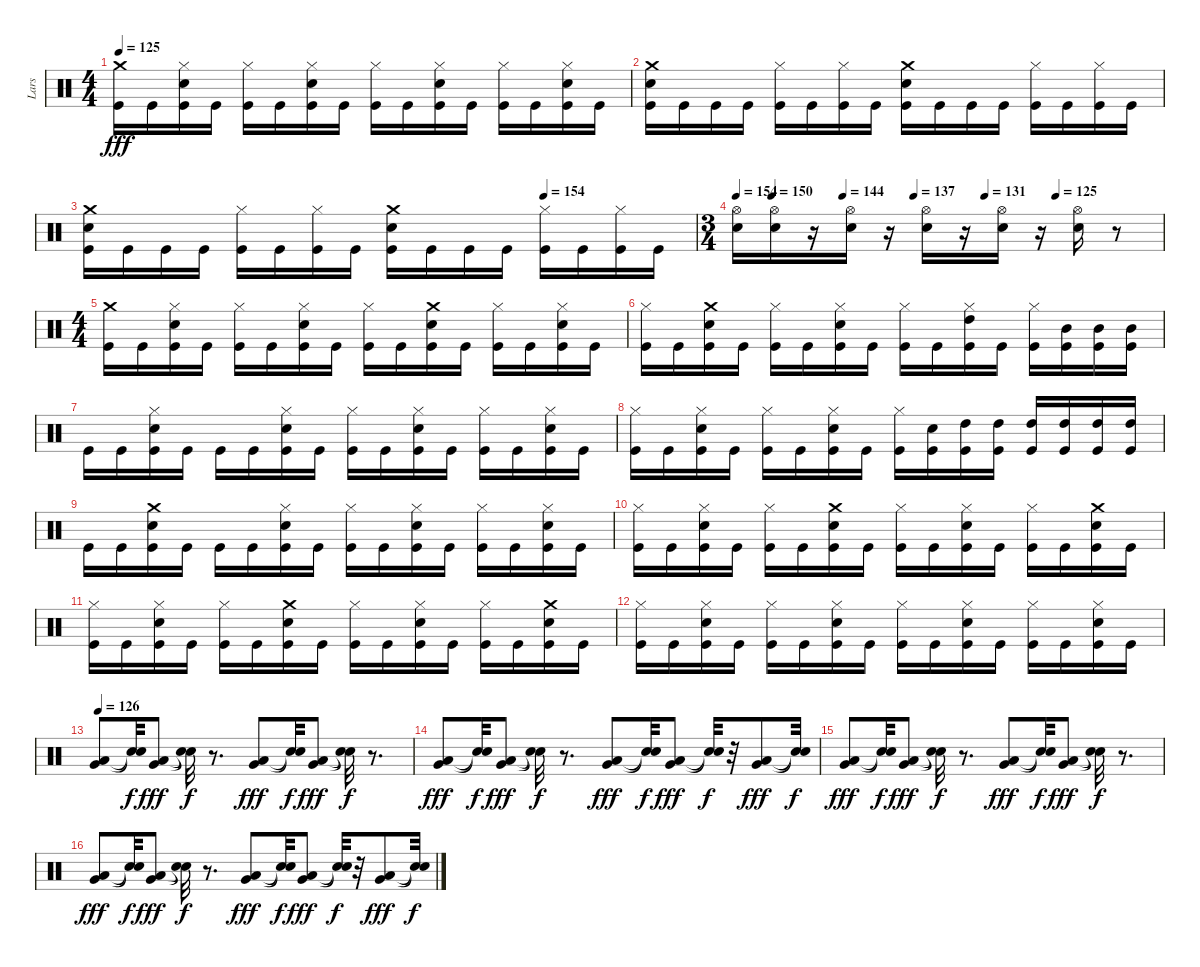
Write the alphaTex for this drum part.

\track ("Lars" "Lars") {instrument percussion bank 102}
\staff {score}
\articulation defaults
\ts (4 4)
\tempo 125
\clef neutral
\ks c
("Crash medium (hit)" "Kick (hit)").16{dy fff} "Kick (hit)".16 ("Kick (hit)" "Snare (hit) 2" "Hi-Hat (closed)").16 "Kick (hit)".16 ("Kick (hit)" "Hi-Hat (closed)").16 "Kick (hit)".16 ("Kick (hit)" "Snare (hit) 2" "Hi-Hat (closed)").16 "Kick (hit)".16 ("Kick (hit)" "Hi-Hat (closed)").16 "Kick (hit)".16 ("Kick (hit)" "Snare (hit) 2" "Hi-Hat (closed)").16 "Kick (hit)".16 ("Kick (hit)" "Hi-Hat (closed)").16 "Kick (hit)".16 ("Kick (hit)" "Snare (hit) 2" "Hi-Hat (closed)").16 "Kick (hit)".16 |
("Crash medium (hit)" "Snare (hit) 2" "Kick (hit)").16 "Kick (hit)".16 "Kick (hit)".16 "Kick (hit)".16 ("Kick (hit)" "Hi-Hat (closed)").16 "Kick (hit)".16 ("Kick (hit)" "Hi-Hat (closed)").16 "Kick (hit)".16 ("Crash medium (hit)" "Snare (hit) 2" "Kick (hit)").16 "Kick (hit)".16 "Kick (hit)".16 "Kick (hit)".16 ("Kick (hit)" "Hi-Hat (closed)").16 "Kick (hit)".16 ("Kick (hit)" "Hi-Hat (closed)").16 "Kick (hit)".16 |
\tempo (154 0.75)
("Crash medium (hit)" "Snare (hit) 2" "Kick (hit)").16 "Kick (hit)".16 "Kick (hit)".16 "Kick (hit)".16 ("Hi-Hat (closed)" "Kick (hit)").16 "Kick (hit)".16 ("Hi-Hat (closed)" "Kick (hit)").16 "Kick (hit)".16 ("Crash medium (hit)" "Snare (hit) 2" "Kick (hit)").16 "Kick (hit)".16 "Kick (hit)".16 "Kick (hit)".16 ("Hi-Hat (closed)" "Kick (hit)").16 "Kick (hit)".16 ("Hi-Hat (closed)" "Kick (hit)").16 "Kick (hit)".16 |
\ts (3 4)
\tempo 154
\tempo (150 0.08333333333333333)
\tempo (144 0.25)
\tempo (137 0.4166666666666667)
\tempo (131 0.5833333333333334)
\tempo (125 0.75)
("Hi-Hat (open)" "Snare (hit) 2").16 ("Hi-Hat (open)" "Snare (hit) 2").16 r.16 ("Hi-Hat (open)" "Snare (hit) 2").16 r.16 ("Hi-Hat (open)" "Snare (hit) 2").16 r.16 ("Hi-Hat (open)" "Snare (hit) 2").16 r.16 ("Hi-Hat (open)" "Snare (hit) 2").16 r.8 |
\ts (4 4)
("Crash medium (hit)" "Kick (hit)").16 "Kick (hit)".16 ("Kick (hit)" "Snare (hit) 2" "Hi-Hat (closed)").16 "Kick (hit)".16 ("Kick (hit)" "Hi-Hat (closed)").16 "Kick (hit)".16 ("Kick (hit)" "Snare (hit) 2" "Hi-Hat (closed)").16 "Kick (hit)".16 ("Hi-Hat (closed)" "Kick (hit)").16 "Kick (hit)".16 ("Crash medium (hit)" "Kick (hit)" "Snare (hit) 2").16 "Kick (hit)".16 ("Kick (hit)" "Hi-Hat (closed)").16 "Kick (hit)".16 ("Kick (hit)" "Snare (hit) 2" "Hi-Hat (closed)").16 "Kick (hit)".16 |
("Hi-Hat (closed)" "Kick (hit)").16 "Kick (hit)".16 ("Crash medium (hit)" "Kick (hit)" "Snare (hit) 2").16 "Kick (hit)".16 ("Kick (hit)" "Hi-Hat (closed)").16 "Kick (hit)".16 ("Kick (hit)" "Snare (hit) 2" "Hi-Hat (closed)").16 "Kick (hit)".16 ("Hi-Hat (closed)" "Kick (hit)").16 "Kick (hit)".16 ("High Tom (hit)" "Kick (hit)" "Hi-Hat (closed)").16 "Kick (hit)".16 ("Hi-Hat (closed)" "Kick (hit)").16 ("Mid Tom (hit)" "Kick (hit)").16 ("Mid Tom (hit)" "Kick (hit)").16 ("Mid Tom (hit)" "Kick (hit)").16 |
"Kick (hit)".16 "Kick (hit)".16 ("Kick (hit)" "Snare (hit) 2" "Hi-Hat (closed)").16 "Kick (hit)".16 "Kick (hit)".16 "Kick (hit)".16 ("Kick (hit)" "Snare (hit) 2" "Hi-Hat (closed)").16 "Kick (hit)".16 ("Hi-Hat (closed)" "Kick (hit)").16 "Kick (hit)".16 ("Kick (hit)" "Snare (hit) 2" "Hi-Hat (closed)").16 "Kick (hit)".16 ("Kick (hit)" "Hi-Hat (closed)").16 "Kick (hit)".16 ("Kick (hit)" "Snare (hit) 2" "Hi-Hat (closed)").16 "Kick (hit)".16 |
("Hi-Hat (closed)" "Kick (hit)").16 "Kick (hit)".16 ("Kick (hit)" "Snare (hit) 2" "Hi-Hat (closed)").16 "Kick (hit)".16 ("Kick (hit)" "Hi-Hat (closed)").16 "Kick (hit)".16 ("Kick (hit)" "Snare (hit) 2" "Hi-Hat (closed)").16 "Kick (hit)".16 ("Hi-Hat (closed)" "Kick (hit)").16 ("Snare (hit) 2" "Kick (hit)").16 ("High Tom (hit)" "Kick (hit)").16 ("High Tom (hit)" "Kick (hit)").16 ("High Tom (hit)" "Kick (hit)").16 ("High Tom (hit)" "Kick (hit)").16 ("High Tom (hit)" "Kick (hit)").16 ("High Tom (hit)" "Kick (hit)").16 |
"Kick (hit)".16 "Kick (hit)".16 ("Crash medium (hit)" "Kick (hit)" "Snare (hit) 2").16 "Kick (hit)".16 "Kick (hit)".16 "Kick (hit)".16 ("Kick (hit)" "Snare (hit) 2" "Hi-Hat (closed)").16 "Kick (hit)".16 ("Hi-Hat (closed)" "Kick (hit)").16 "Kick (hit)".16 ("Kick (hit)" "Snare (hit) 2" "Hi-Hat (closed)").16 "Kick (hit)".16 ("Kick (hit)" "Hi-Hat (closed)").16 "Kick (hit)".16 ("Kick (hit)" "Snare (hit) 2" "Hi-Hat (closed)").16 "Kick (hit)".16 |
("Hi-Hat (closed)" "Kick (hit)").16 "Kick (hit)".16 ("Hi-Hat (closed)" "Kick (hit)" "Snare (hit) 2").16 "Kick (hit)".16 ("Hi-Hat (closed)" "Kick (hit)").16 "Kick (hit)".16 ("Crash medium (hit)" "Kick (hit)" "Snare (hit) 2").16 "Kick (hit)".16 ("Hi-Hat (closed)" "Kick (hit)").16 "Kick (hit)".16 ("Kick (hit)" "Snare (hit) 2" "Hi-Hat (closed)").16 "Kick (hit)".16 ("Kick (hit)" "Hi-Hat (closed)").16 "Kick (hit)".16 ("Crash medium (hit)" "Kick (hit)" "Snare (hit) 2").16 "Kick (hit)".16 |
("Hi-Hat (closed)" "Kick (hit)").16 "Kick (hit)".16 ("Hi-Hat (closed)" "Kick (hit)" "Snare (hit) 2").16 "Kick (hit)".16 ("Hi-Hat (closed)" "Kick (hit)").16 "Kick (hit)".16 ("Crash medium (hit)" "Kick (hit)" "Snare (hit) 2").16 "Kick (hit)".16 ("Hi-Hat (closed)" "Kick (hit)").16 "Kick (hit)".16 ("Kick (hit)" "Snare (hit) 2" "Hi-Hat (closed)").16 "Kick (hit)".16 ("Kick (hit)" "Hi-Hat (closed)").16 "Kick (hit)".16 ("Crash medium (hit)" "Kick (hit)" "Snare (hit) 2").16 "Kick (hit)".16 |
("Hi-Hat (closed)" "Kick (hit)").16 "Kick (hit)".16 ("Hi-Hat (closed)" "Kick (hit)" "Snare (hit) 2").16 "Kick (hit)".16 ("Hi-Hat (closed)" "Kick (hit)").16 "Kick (hit)".16 ("Kick (hit)" "Snare (hit) 2" "Hi-Hat (closed)").16 "Kick (hit)".16 ("Hi-Hat (closed)" "Kick (hit)").16 "Kick (hit)".16 ("Kick (hit)" "Snare (hit) 2" "Hi-Hat (closed)").16 "Kick (hit)".16 ("Kick (hit)" "Hi-Hat (closed)").16 "Kick (hit)".16 ("Kick (hit)" "Snare (hit) 2" "Hi-Hat (closed)").16 "Kick (hit)".16 |
\tempo 126
("Very Low Tom (hit)" "Low Tom (hit)").8 ("Snare (hit)"{t} "Snare (hit)"{t}).32{dy f} ("Very Low Tom (hit)" "Low Tom (hit)").8{dy fff} ("Snare (hit)"{t} "Snare (hit)"{t}).32{dy f} r.8{d} ("Very Low Tom (hit)" "Low Tom (hit)").8{dy fff} ("Snare (hit)"{t} "Snare (hit)"{t}).32{dy f} ("Very Low Tom (hit)" "Low Tom (hit)").8{dy fff} ("Snare (hit)"{t} "Snare (hit)"{t}).32{dy f} r.8{d} |
("Very Low Tom (hit)" "Low Tom (hit)").8{dy fff} ("Snare (hit)"{t} "Snare (hit)"{t}).32{dy f} ("Very Low Tom (hit)" "Low Tom (hit)").8{dy fff} ("Snare (hit)"{t} "Snare (hit)"{t}).32{dy f} r.8{d} ("Very Low Tom (hit)" "Low Tom (hit)").8{dy fff} ("Snare (hit)"{t} "Snare (hit)"{t}).32{dy f} ("Very Low Tom (hit)" "Low Tom (hit)").8{dy fff} ("Snare (hit)"{t} "Snare (hit)"{t}).32{dy f} r.32 ("Very Low Tom (hit)" "Low Tom (hit)").8{dy fff} ("Snare (hit)"{t} "Snare (hit)"{t}).32{dy f} |
("Very Low Tom (hit)" "Low Tom (hit)").8{dy fff} ("Snare (hit)"{t} "Snare (hit)"{t}).32{dy f} ("Very Low Tom (hit)" "Low Tom (hit)").8{dy fff} ("Snare (hit)"{t} "Snare (hit)"{t}).32{dy f} r.8{d} ("Very Low Tom (hit)" "Low Tom (hit)").8{dy fff} ("Snare (hit)"{t} "Snare (hit)"{t}).32{dy f} ("Very Low Tom (hit)" "Low Tom (hit)").8{dy fff} ("Snare (hit)"{t} "Snare (hit)"{t}).32{dy f} r.8{d} |
("Very Low Tom (hit)" "Low Tom (hit)").8{dy fff} ("Snare (hit)"{t} "Snare (hit)"{t}).32{dy f} ("Very Low Tom (hit)" "Low Tom (hit)").8{dy fff} ("Snare (hit)"{t} "Snare (hit)"{t}).32{dy f} r.8{d} ("Very Low Tom (hit)" "Low Tom (hit)").8{dy fff} ("Snare (hit)"{t} "Snare (hit)"{t}).32{dy f} ("Very Low Tom (hit)" "Low Tom (hit)").8{dy fff} ("Snare (hit)"{t} "Snare (hit)"{t}).32{dy f} r.32 ("Very Low Tom (hit)" "Low Tom (hit)").8{dy fff} ("Snare (hit)"{t} "Snare (hit)"{t}).32{dy f}
